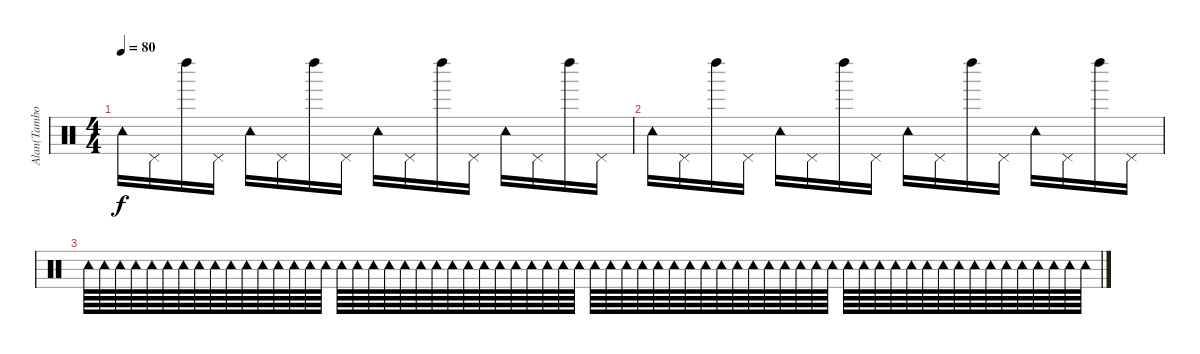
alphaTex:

\track ("Alan(Tambourine)" "Alan(Tambo") {instrument percussion}
\staff {score}
\articulation defaults
\ts (4 4)
\tempo 80
\clef neutral
\ks c "Tambourine (hit)".16{dy f} "Pedal Hi-Hat (hit)".16 "Left Maraca (hit)".16 "Pedal Hi-Hat (hit)".16 "Tambourine (hit)".16 "Pedal Hi-Hat (hit)".16 "Left Maraca (hit)".16 "Pedal Hi-Hat (hit)".16 "Tambourine (hit)".16 "Pedal Hi-Hat (hit)".16 "Left Maraca (hit)".16 "Pedal Hi-Hat (hit)".16 "Tambourine (hit)".16 "Pedal Hi-Hat (hit)".16 "Left Maraca (hit)".16 "Pedal Hi-Hat (hit)".16
|
"Tambourine (hit)".16 "Pedal Hi-Hat (hit)".16 "Left Maraca (hit)".16 "Pedal Hi-Hat (hit)".16 "Tambourine (hit)".16 "Pedal Hi-Hat (hit)".16 "Left Maraca (hit)".16 "Pedal Hi-Hat (hit)".16 "Tambourine (hit)".16 "Pedal Hi-Hat (hit)".16 "Left Maraca (hit)".16 "Pedal Hi-Hat (hit)".16 "Tambourine (hit)".16 "Pedal Hi-Hat (hit)".16 "Left Maraca (hit)".16 "Pedal Hi-Hat (hit)".16 |
"Tambourine (hit)".64{volume 11} "Tambourine (hit)".64 "Tambourine (hit)".64 "Tambourine (hit)".64 "Tambourine (hit)".64 "Tambourine (hit)".64 "Tambourine (hit)".64 "Tambourine (hit)".64 "Tambourine (hit)".64 "Tambourine (hit)".64 "Tambourine (hit)".64 "Tambourine (hit)".64 "Tambourine (hit)".64 "Tambourine (hit)".64 "Tambourine (hit)".64 "Tambourine (hit)".64 "Tambourine (hit)".64{volume 9} "Tambourine (hit)".64 "Tambourine (hit)".64 "Tambourine (hit)".64 "Tambourine (hit)".64 "Tambourine (hit)".64 "Tambourine (hit)".64 "Tambourine (hit)".64 "Tambourine (hit)".64{volume 7} "Tambourine (hit)".64 "Tambourine (hit)".64 "Tambourine (hit)".64 "Tambourine (hit)".64 "Tambourine (hit)".64 "Tambourine (hit)".64 "Tambourine (hit)".64 "Tambourine (hit)".64 "Tambourine (hit)".64{volume 6} "Tambourine (hit)".64 "Tambourine (hit)".64 "Tambourine (hit)".64 "Tambourine (hit)".64 "Tambourine (hit)".64 "Tambourine (hit)".64 "Tambourine (hit)".64 "Tambourine (hit)".64 "Tambourine (hit)".64 "Tambourine (hit)".64 "Tambourine (hit)".64 "Tambourine (hit)".64 "Tambourine (hit)".64 "Tambourine (hit)".64 "Tambourine (hit)".64{volume 5} "Tambourine (hit)".64{volume 5} "Tambourine (hit)".64 "Tambourine (hit)".64 "Tambourine (hit)".64 "Tambourine (hit)".64 "Tambourine (hit)".64 "Tambourine (hit)".64 "Tambourine (hit)".64{volume 2} "Tambourine (hit)".64 "Tambourine (hit)".64 "Tambourine (hit)".64 "Tambourine (hit)".64 "Tambourine (hit)".64 "Tambourine (hit)".64 "Tambourine (hit)".64
